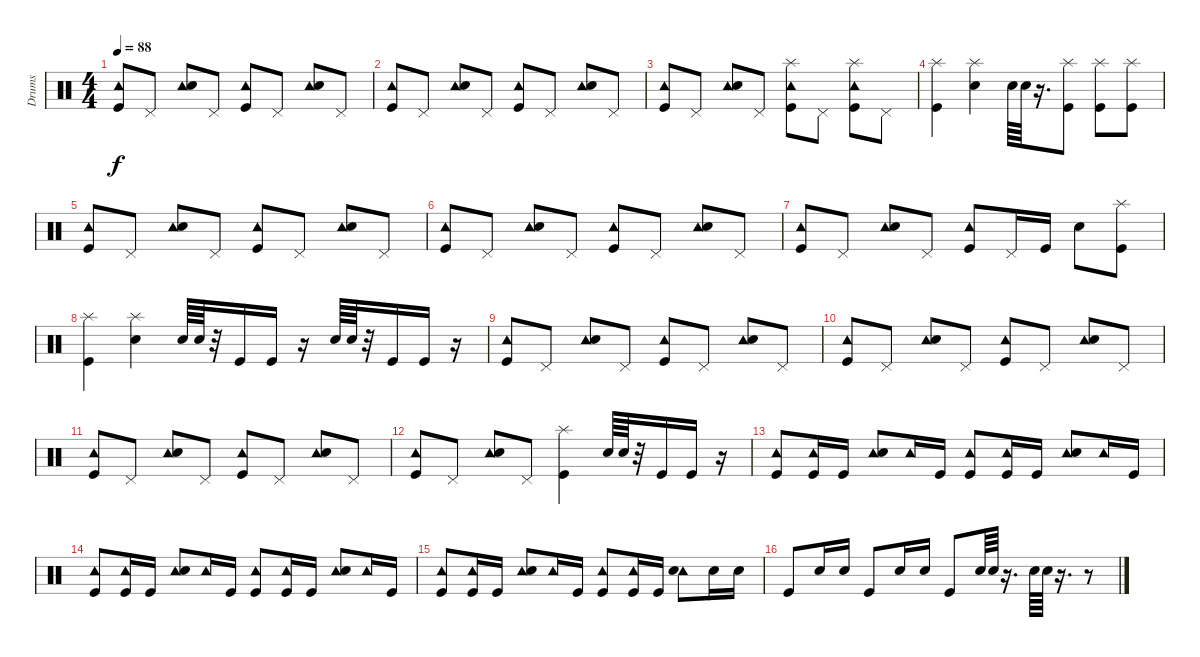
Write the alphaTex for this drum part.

\track ("Drums" "Drums") {instrument percussion}
\staff {score}
\articulation defaults
\ts (4 4)
\tempo 88
\clef neutral
\ks c
("Tambourine (hit)" "Kick (hit)").8{dy f} "Pedal Hi-Hat (hit)".8 ("Tambourine (hit)" "Snare (hit) 2").8 "Pedal Hi-Hat (hit)".8 ("Tambourine (hit)" "Kick (hit)").8 "Pedal Hi-Hat (hit)".8 ("Tambourine (hit)" "Snare (hit) 2").8 "Pedal Hi-Hat (hit)".8 |
("Tambourine (hit)" "Kick (hit)").8 "Pedal Hi-Hat (hit)".8 ("Tambourine (hit)" "Snare (hit) 2").8 "Pedal Hi-Hat (hit)".8 ("Tambourine (hit)" "Kick (hit)").8 "Pedal Hi-Hat (hit)".8 ("Tambourine (hit)" "Snare (hit) 2").8 "Pedal Hi-Hat (hit)".8 |
("Tambourine (hit)" "Kick (hit)").8 "Pedal Hi-Hat (hit)".8 ("Tambourine (hit)" "Snare (hit) 2").8 "Pedal Hi-Hat (hit)".8 ("Tambourine (hit)" "Kick (hit)" "Splash (hit)").8 "Pedal Hi-Hat (hit)".8 ("Tambourine (hit)" "Kick (hit)" "Splash (hit)").8 "Pedal Hi-Hat (hit)".8 |
("Kick (hit)" "Splash (hit)").4 ("Snare (hit) 2" "Splash (hit)").4 "Snare (hit) 2".64 "Snare (hit) 2".64 r.16{d} ("Kick (hit)" "Splash (hit)").8 ("Kick (hit)" "Splash (hit)").8 ("Kick (hit)" "Splash (hit)").8 |
("Tambourine (hit)" "Kick (hit)").8 "Pedal Hi-Hat (hit)".8 ("Tambourine (hit)" "Snare (hit) 2").8 "Pedal Hi-Hat (hit)".8 ("Tambourine (hit)" "Kick (hit)").8 "Pedal Hi-Hat (hit)".8 ("Tambourine (hit)" "Snare (hit) 2").8 "Pedal Hi-Hat (hit)".8 |
("Tambourine (hit)" "Kick (hit)").8 "Pedal Hi-Hat (hit)".8 ("Tambourine (hit)" "Snare (hit) 2").8 "Pedal Hi-Hat (hit)".8 ("Tambourine (hit)" "Kick (hit)").8 "Pedal Hi-Hat (hit)".8 ("Tambourine (hit)" "Snare (hit) 2").8 "Pedal Hi-Hat (hit)".8 |
("Tambourine (hit)" "Kick (hit)").8 "Pedal Hi-Hat (hit)".8 ("Tambourine (hit)" "Snare (hit) 2").8 "Pedal Hi-Hat (hit)".8 ("Tambourine (hit)" "Kick (hit)").8 "Pedal Hi-Hat (hit)".16 "Kick (hit)".16 "Snare (hit) 2".8 ("Kick (hit)" "Splash (hit)").8 |
("Kick (hit)" "Splash (hit)").4 ("Snare (hit) 2" "Splash (hit)").4 "Snare (hit) 2".64 "Snare (hit) 2".64 r.32 "Kick (hit)".16 "Kick (hit)".16 r.16 "Snare (hit) 2".64 "Snare (hit) 2".64 r.32 "Kick (hit)".16 "Kick (hit)".16 r.16 |
("Tambourine (hit)" "Kick (hit)").8 "Pedal Hi-Hat (hit)".8 ("Tambourine (hit)" "Snare (hit) 2").8 "Pedal Hi-Hat (hit)".8 ("Tambourine (hit)" "Kick (hit)").8 "Pedal Hi-Hat (hit)".8 ("Tambourine (hit)" "Snare (hit) 2").8 "Pedal Hi-Hat (hit)".8 |
("Tambourine (hit)" "Kick (hit)").8 "Pedal Hi-Hat (hit)".8 ("Tambourine (hit)" "Snare (hit) 2").8 "Pedal Hi-Hat (hit)".8 ("Tambourine (hit)" "Kick (hit)").8 "Pedal Hi-Hat (hit)".8 ("Tambourine (hit)" "Snare (hit) 2").8 "Pedal Hi-Hat (hit)".8 |
("Tambourine (hit)" "Kick (hit)").8 "Pedal Hi-Hat (hit)".8 ("Tambourine (hit)" "Snare (hit) 2").8 "Pedal Hi-Hat (hit)".8 ("Tambourine (hit)" "Kick (hit)").8 "Pedal Hi-Hat (hit)".8 ("Tambourine (hit)" "Snare (hit) 2").8 "Pedal Hi-Hat (hit)".8 |
("Tambourine (hit)" "Kick (hit)").8 "Pedal Hi-Hat (hit)".8 ("Tambourine (hit)" "Snare (hit) 2").8 "Pedal Hi-Hat (hit)".8 ("Kick (hit)" "Splash (hit)").4 "Snare (hit) 2".64 "Snare (hit) 2".64 r.32 "Kick (hit)".16 "Kick (hit)".16 r.16 |
("Tambourine (hit)" "Kick (hit)").8 ("Tambourine (hit)" "Kick (hit)").16 "Kick (hit)".16 ("Tambourine (hit)" "Snare (hit) 2").8 "Tambourine (hit)".16 "Kick (hit)".16 ("Tambourine (hit)" "Kick (hit)").8 ("Tambourine (hit)" "Kick (hit)").16 "Kick (hit)".16 ("Tambourine (hit)" "Snare (hit) 2").8 "Tambourine (hit)".16 "Kick (hit)".16 |
("Tambourine (hit)" "Kick (hit)").8 ("Tambourine (hit)" "Kick (hit)").16 "Kick (hit)".16 ("Tambourine (hit)" "Snare (hit) 2").8 "Tambourine (hit)".16 "Kick (hit)".16 ("Tambourine (hit)" "Kick (hit)").8 ("Tambourine (hit)" "Kick (hit)").16 "Kick (hit)".16 ("Tambourine (hit)" "Snare (hit) 2").8 "Tambourine (hit)".16 "Kick (hit)".16 |
("Tambourine (hit)" "Kick (hit)").8 ("Tambourine (hit)" "Kick (hit)").16 "Kick (hit)".16 ("Tambourine (hit)" "Snare (hit) 2").8 "Tambourine (hit)".16 "Kick (hit)".16 ("Tambourine (hit)" "Kick (hit)").8 ("Tambourine (hit)" "Kick (hit)").16 "Kick (hit)".16 ("Tambourine (hit)" "Snare (hit) 2").8 "Snare (hit) 2".16 "Snare (hit) 2".16 |
"Kick (hit)".8 "Snare (hit) 2".16 "Snare (hit) 2".16 "Kick (hit)".8 "Snare (hit) 2".16 "Snare (hit) 2".16 "Kick (hit)".8 "Snare (hit) 2".64 "Snare (hit) 2".64 r.16{d} "Snare (hit) 2".64 "Snare (hit) 2".64 r.16{d} r.8
